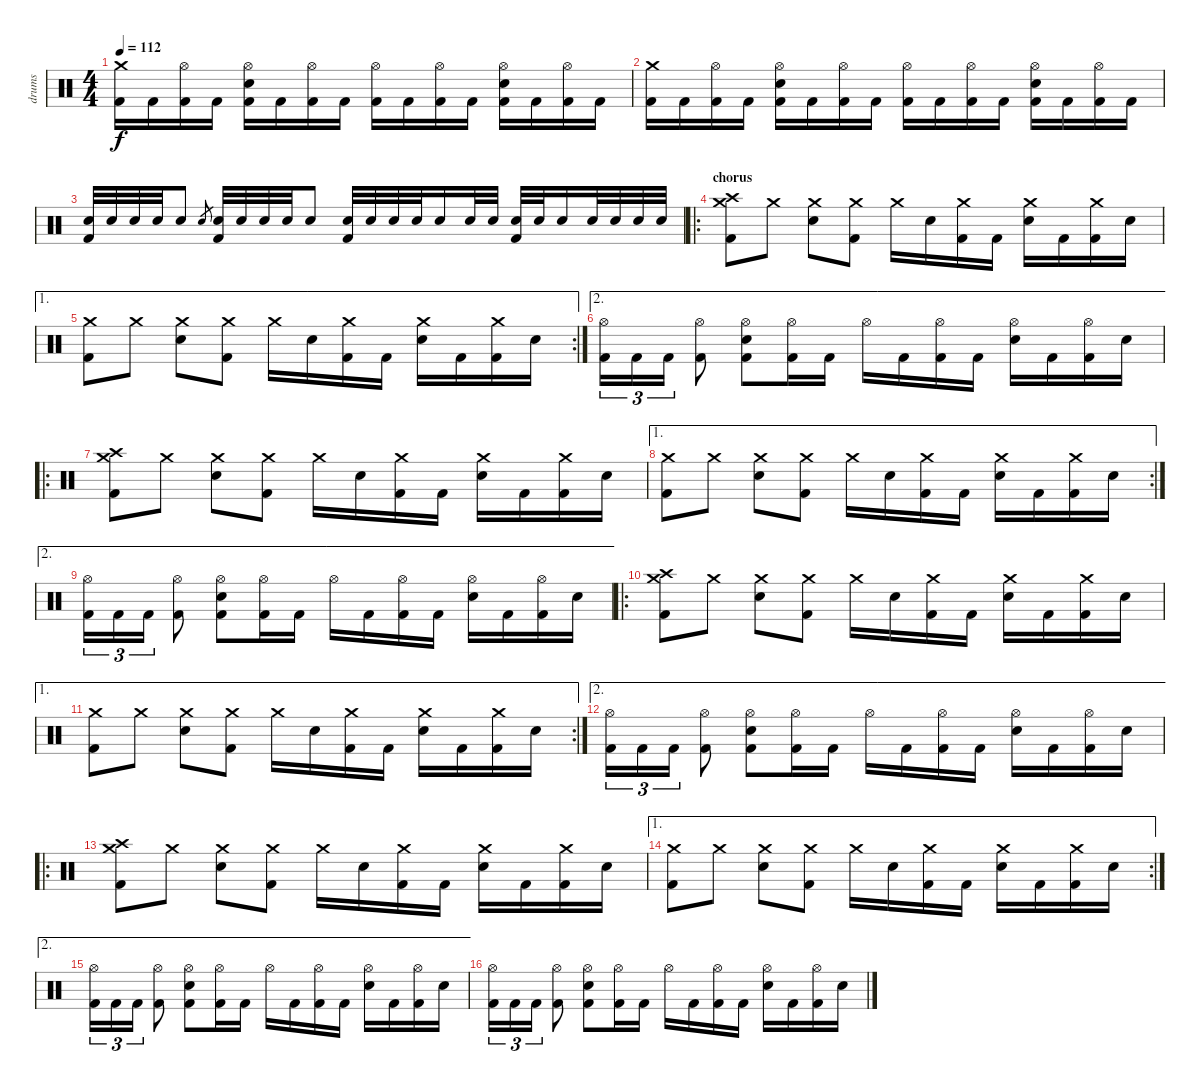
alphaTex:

\track ("drums" "drums") {instrument percussion}
\staff {score}
\articulation defaults
\ts (4 4)
\tempo 112
\clef neutral
\ks c
("Crash medium (hit)" "Kick (hit) 2").16{dy f} "Kick (hit) 2".16 ("Hi-Hat (open)" "Kick (hit) 2").16 "Kick (hit) 2".16 ("Hi-Hat (open)" "Electric Snare (hit)" "Kick (hit) 2").16 "Kick (hit) 2".16 ("Hi-Hat (open)" "Kick (hit) 2").16 "Kick (hit) 2".16 ("Hi-Hat (open)" "Kick (hit) 2").16 "Kick (hit) 2".16 ("Hi-Hat (open)" "Kick (hit) 2").16 "Kick (hit) 2".16 ("Hi-Hat (open)" "Electric Snare (hit)" "Kick (hit) 2").16 "Kick (hit) 2".16 ("Hi-Hat (open)" "Kick (hit) 2").16 "Kick (hit) 2".16 |
("Crash medium (hit)" "Kick (hit) 2").16 "Kick (hit) 2".16 ("Hi-Hat (open)" "Kick (hit) 2").16 "Kick (hit) 2".16 ("Hi-Hat (open)" "Electric Snare (hit)" "Kick (hit) 2").16 "Kick (hit) 2".16 ("Hi-Hat (open)" "Kick (hit) 2").16 "Kick (hit) 2".16 ("Hi-Hat (open)" "Kick (hit) 2").16 "Kick (hit) 2".16 ("Hi-Hat (open)" "Kick (hit) 2").16 "Kick (hit) 2".16 ("Hi-Hat (open)" "Electric Snare (hit)" "Kick (hit) 2").16 "Kick (hit) 2".16 ("Hi-Hat (open)" "Kick (hit) 2").16 "Kick (hit) 2".16 |
("Electric Snare (hit)" "Kick (hit) 2").32 "Electric Snare (hit)".32 "Electric Snare (hit)".32 "Electric Snare (hit)".32 "Electric Snare (hit)".8 "Electric Snare (hit)".8{gr} ("Electric Snare (hit)" "Kick (hit) 2").32 "Electric Snare (hit)".32 "Electric Snare (hit)".32 "Electric Snare (hit)".32 "Electric Snare (hit)".8 ("Electric Snare (hit)" "Kick (hit) 2").32 "Electric Snare (hit)".32 "Electric Snare (hit)".32 "Electric Snare (hit)".32 "Electric Snare (hit)".16 "Electric Snare (hit)".32 "Electric Snare (hit)".32 ("Electric Snare (hit)" "Kick (hit) 2").32 "Electric Snare (hit)".32 "Electric Snare (hit)".16 "Electric Snare (hit)".32 "Electric Snare (hit)".32 "Electric Snare (hit)".32 "Electric Snare (hit)".32 |
\ro
\section ("" "chorus")
("Crash high (hit)" "Crash medium (hit)" "Kick (hit) 2").8 "Crash medium (hit)".8 ("Crash medium (hit)" "Electric Snare (hit)").8 ("Crash medium (hit)" "Kick (hit) 2").8 "Crash medium (hit)".16 "Electric Snare (hit)".16 ("Crash medium (hit)" "Kick (hit) 2").16 "Kick (hit) 2".16 ("Crash medium (hit)" "Electric Snare (hit)").16 "Kick (hit) 2".16 ("Crash medium (hit)" "Kick (hit) 2").16 "Electric Snare (hit)".16 |
\ae 1
\rc 2
("Crash medium (hit)" "Kick (hit) 2").8 "Crash medium (hit)".8 ("Crash medium (hit)" "Electric Snare (hit)").8 ("Crash medium (hit)" "Kick (hit) 2").8 "Crash medium (hit)".16 "Electric Snare (hit)".16 ("Crash medium (hit)" "Kick (hit) 2").16 "Kick (hit) 2".16 ("Crash medium (hit)" "Electric Snare (hit)").16 "Kick (hit) 2".16 ("Crash medium (hit)" "Kick (hit) 2").16 "Electric Snare (hit)".16 |
\ae 2
("Hi-Hat (open)" "Kick (hit) 2").16{tu (3 2)} "Kick (hit) 2".16{tu (3 2)} "Kick (hit) 2".16{tu (3 2)} ("Hi-Hat (open)" "Kick (hit) 2").8 ("Hi-Hat (open)" "Electric Snare (hit)" "Kick (hit) 2").8 ("Hi-Hat (open)" "Kick (hit) 2").16 "Kick (hit) 2".16 "Hi-Hat (open)".16 "Kick (hit) 2".16 ("Hi-Hat (open)" "Kick (hit) 2").16 "Kick (hit) 2".16 ("Hi-Hat (open)" "Electric Snare (hit)").16 "Kick (hit) 2".16 ("Hi-Hat (open)" "Kick (hit) 2").16 "Electric Snare (hit)".16 |
\ro
("Crash high (hit)" "Crash medium (hit)" "Kick (hit) 2").8 "Crash medium (hit)".8 ("Crash medium (hit)" "Electric Snare (hit)").8 ("Crash medium (hit)" "Kick (hit) 2").8 "Crash medium (hit)".16 "Electric Snare (hit)".16 ("Crash medium (hit)" "Kick (hit) 2").16 "Kick (hit) 2".16 ("Crash medium (hit)" "Electric Snare (hit)").16 "Kick (hit) 2".16 ("Crash medium (hit)" "Kick (hit) 2").16 "Electric Snare (hit)".16 |
\ae 1
\rc 2
("Crash medium (hit)" "Kick (hit) 2").8 "Crash medium (hit)".8 ("Crash medium (hit)" "Electric Snare (hit)").8 ("Crash medium (hit)" "Kick (hit) 2").8 "Crash medium (hit)".16 "Electric Snare (hit)".16 ("Crash medium (hit)" "Kick (hit) 2").16 "Kick (hit) 2".16 ("Crash medium (hit)" "Electric Snare (hit)").16 "Kick (hit) 2".16 ("Crash medium (hit)" "Kick (hit) 2").16 "Electric Snare (hit)".16 |
\ae 2
("Hi-Hat (open)" "Kick (hit) 2").16{tu (3 2)} "Kick (hit) 2".16{tu (3 2)} "Kick (hit) 2".16{tu (3 2)} ("Hi-Hat (open)" "Kick (hit) 2").8 ("Hi-Hat (open)" "Electric Snare (hit)" "Kick (hit) 2").8 ("Hi-Hat (open)" "Kick (hit) 2").16 "Kick (hit) 2".16 "Hi-Hat (open)".16 "Kick (hit) 2".16 ("Hi-Hat (open)" "Kick (hit) 2").16 "Kick (hit) 2".16 ("Hi-Hat (open)" "Electric Snare (hit)").16 "Kick (hit) 2".16 ("Hi-Hat (open)" "Kick (hit) 2").16 "Electric Snare (hit)".16 |
\ro
("Crash high (hit)" "Crash medium (hit)" "Kick (hit) 2").8 "Crash medium (hit)".8 ("Crash medium (hit)" "Electric Snare (hit)").8 ("Crash medium (hit)" "Kick (hit) 2").8 "Crash medium (hit)".16 "Electric Snare (hit)".16 ("Crash medium (hit)" "Kick (hit) 2").16 "Kick (hit) 2".16 ("Crash medium (hit)" "Electric Snare (hit)").16 "Kick (hit) 2".16 ("Crash medium (hit)" "Kick (hit) 2").16 "Electric Snare (hit)".16 |
\ae 1
\rc 2
("Crash medium (hit)" "Kick (hit) 2").8 "Crash medium (hit)".8 ("Crash medium (hit)" "Electric Snare (hit)").8 ("Crash medium (hit)" "Kick (hit) 2").8 "Crash medium (hit)".16 "Electric Snare (hit)".16 ("Crash medium (hit)" "Kick (hit) 2").16 "Kick (hit) 2".16 ("Crash medium (hit)" "Electric Snare (hit)").16 "Kick (hit) 2".16 ("Crash medium (hit)" "Kick (hit) 2").16 "Electric Snare (hit)".16 |
\ae 2
("Hi-Hat (open)" "Kick (hit) 2").16{tu (3 2)} "Kick (hit) 2".16{tu (3 2)} "Kick (hit) 2".16{tu (3 2)} ("Hi-Hat (open)" "Kick (hit) 2").8 ("Hi-Hat (open)" "Electric Snare (hit)" "Kick (hit) 2").8 ("Hi-Hat (open)" "Kick (hit) 2").16 "Kick (hit) 2".16 "Hi-Hat (open)".16 "Kick (hit) 2".16 ("Hi-Hat (open)" "Kick (hit) 2").16 "Kick (hit) 2".16 ("Hi-Hat (open)" "Electric Snare (hit)").16 "Kick (hit) 2".16 ("Hi-Hat (open)" "Kick (hit) 2").16 "Electric Snare (hit)".16 |
\ro
("Crash high (hit)" "Crash medium (hit)" "Kick (hit) 2").8 "Crash medium (hit)".8 ("Crash medium (hit)" "Electric Snare (hit)").8 ("Crash medium (hit)" "Kick (hit) 2").8 "Crash medium (hit)".16 "Electric Snare (hit)".16 ("Crash medium (hit)" "Kick (hit) 2").16 "Kick (hit) 2".16 ("Crash medium (hit)" "Electric Snare (hit)").16 "Kick (hit) 2".16 ("Crash medium (hit)" "Kick (hit) 2").16 "Electric Snare (hit)".16 |
\ae 1
\rc 2
("Crash medium (hit)" "Kick (hit) 2").8 "Crash medium (hit)".8 ("Crash medium (hit)" "Electric Snare (hit)").8 ("Crash medium (hit)" "Kick (hit) 2").8 "Crash medium (hit)".16 "Electric Snare (hit)".16 ("Crash medium (hit)" "Kick (hit) 2").16 "Kick (hit) 2".16 ("Crash medium (hit)" "Electric Snare (hit)").16 "Kick (hit) 2".16 ("Crash medium (hit)" "Kick (hit) 2").16 "Electric Snare (hit)".16 |
\ae 2
("Hi-Hat (open)" "Kick (hit) 2").16{tu (3 2)} "Kick (hit) 2".16{tu (3 2)} "Kick (hit) 2".16{tu (3 2)} ("Hi-Hat (open)" "Kick (hit) 2").8 ("Hi-Hat (open)" "Electric Snare (hit)" "Kick (hit) 2").8 ("Hi-Hat (open)" "Kick (hit) 2").16 "Kick (hit) 2".16 "Hi-Hat (open)".16 "Kick (hit) 2".16 ("Hi-Hat (open)" "Kick (hit) 2").16 "Kick (hit) 2".16 ("Hi-Hat (open)" "Electric Snare (hit)").16 "Kick (hit) 2".16 ("Hi-Hat (open)" "Kick (hit) 2").16 "Electric Snare (hit)".16 |
("Hi-Hat (open)" "Kick (hit) 2").16{tu (3 2)} "Kick (hit) 2".16{tu (3 2)} "Kick (hit) 2".16{tu (3 2)} ("Hi-Hat (open)" "Kick (hit) 2").8 ("Hi-Hat (open)" "Electric Snare (hit)" "Kick (hit) 2").8 ("Hi-Hat (open)" "Kick (hit) 2").16 "Kick (hit) 2".16 "Hi-Hat (open)".16 "Kick (hit) 2".16 ("Hi-Hat (open)" "Kick (hit) 2").16 "Kick (hit) 2".16 ("Hi-Hat (open)" "Electric Snare (hit)").16 "Kick (hit) 2".16 ("Hi-Hat (open)" "Kick (hit) 2").16 "Electric Snare (hit)".16
